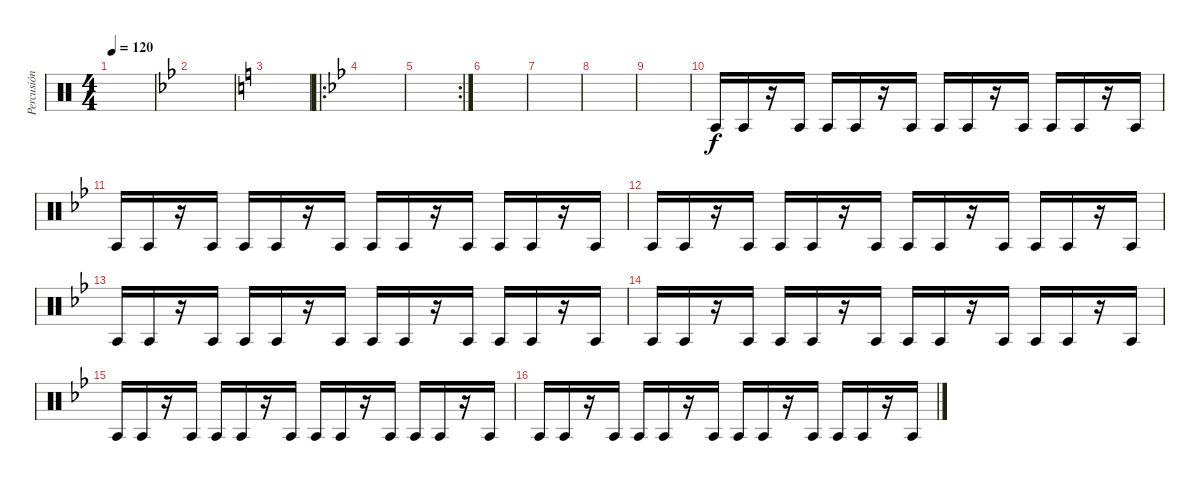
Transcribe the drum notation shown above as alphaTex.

\track ("Percusión" "Percusión") {instrument percussion}
\staff {score}
\articulation defaults
\ts (4 4)
\tempo 120
\clef neutral
\ks c
|
\ks bb
|
\ks c
|
\ro
\ks bb
|
\rc 2
|
|
|
|
|
"Agogo tow (hit)".16 "Agogo tow (hit)".16 r.16 "Agogo tow (hit)".16 "Agogo tow (hit)".16 "Agogo tow (hit)".16 r.16 "Agogo tow (hit)".16 "Agogo tow (hit)".16 "Agogo tow (hit)".16 r.16 "Agogo tow (hit)".16 "Agogo tow (hit)".16 "Agogo tow (hit)".16 r.16 "Agogo tow (hit)".16 |
"Agogo tow (hit)".16 "Agogo tow (hit)".16 r.16 "Agogo tow (hit)".16 "Agogo tow (hit)".16 "Agogo tow (hit)".16 r.16 "Agogo tow (hit)".16 "Agogo tow (hit)".16 "Agogo tow (hit)".16 r.16 "Agogo tow (hit)".16 "Agogo tow (hit)".16 "Agogo tow (hit)".16 r.16 "Agogo tow (hit)".16 |
"Agogo tow (hit)".16 "Agogo tow (hit)".16 r.16 "Agogo tow (hit)".16 "Agogo tow (hit)".16 "Agogo tow (hit)".16 r.16 "Agogo tow (hit)".16 "Agogo tow (hit)".16 "Agogo tow (hit)".16 r.16 "Agogo tow (hit)".16 "Agogo tow (hit)".16 "Agogo tow (hit)".16 r.16 "Agogo tow (hit)".16 |
"Agogo tow (hit)".16 "Agogo tow (hit)".16 r.16 "Agogo tow (hit)".16 "Agogo tow (hit)".16 "Agogo tow (hit)".16 r.16 "Agogo tow (hit)".16 "Agogo tow (hit)".16 "Agogo tow (hit)".16 r.16 "Agogo tow (hit)".16 "Agogo tow (hit)".16 "Agogo tow (hit)".16 r.16 "Agogo tow (hit)".16 |
"Agogo tow (hit)".16 "Agogo tow (hit)".16 r.16 "Agogo tow (hit)".16 "Agogo tow (hit)".16 "Agogo tow (hit)".16 r.16 "Agogo tow (hit)".16 "Agogo tow (hit)".16 "Agogo tow (hit)".16 r.16 "Agogo tow (hit)".16 "Agogo tow (hit)".16 "Agogo tow (hit)".16 r.16 "Agogo tow (hit)".16 |
"Agogo tow (hit)".16 "Agogo tow (hit)".16 r.16 "Agogo tow (hit)".16 "Agogo tow (hit)".16 "Agogo tow (hit)".16 r.16 "Agogo tow (hit)".16 "Agogo tow (hit)".16 "Agogo tow (hit)".16 r.16 "Agogo tow (hit)".16 "Agogo tow (hit)".16 "Agogo tow (hit)".16 r.16 "Agogo tow (hit)".16 |
"Agogo tow (hit)".16 "Agogo tow (hit)".16 r.16 "Agogo tow (hit)".16 "Agogo tow (hit)".16 "Agogo tow (hit)".16 r.16 "Agogo tow (hit)".16 "Agogo tow (hit)".16 "Agogo tow (hit)".16 r.16 "Agogo tow (hit)".16 "Agogo tow (hit)".16 "Agogo tow (hit)".16 r.16 "Agogo tow (hit)".16
